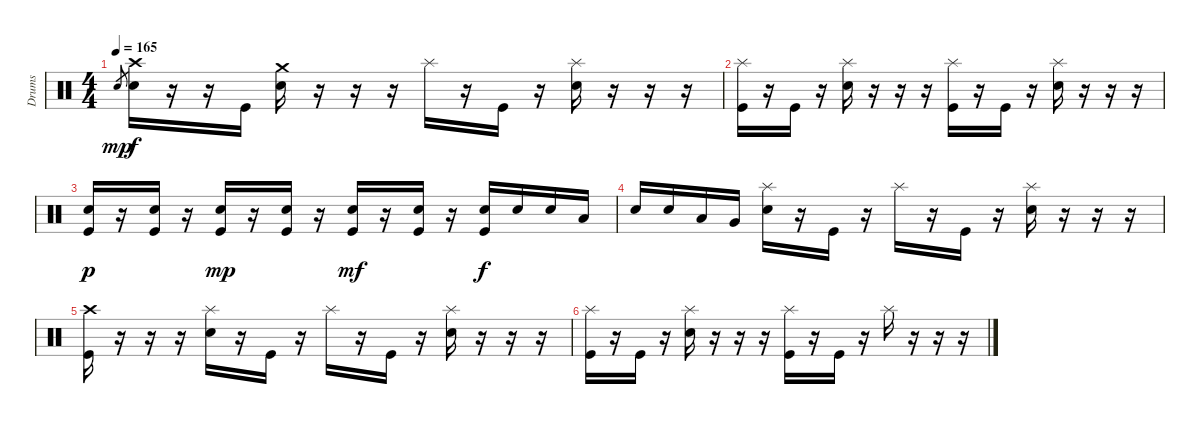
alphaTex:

\track ("Drums" "Drums") {instrument percussion}
\staff {score}
\articulation defaults
\ts (4 4)
\tempo 165
\clef neutral
\ks c "Electric Snare (hit)".8{gr dy mp}
("Crash high (hit)" "Electric Snare (hit)").16{dy f} r.16 r.16 "Kick (hit)".16 ("Crash medium (hit)" "Electric Snare (hit)").16 r.16 r.16 r.16 "Splash (hit)".16 r.16 "Kick (hit)".16 r.16 ("Splash (hit)" "Electric Snare (hit)").16 r.16 r.16 r.16 |
("Splash (hit)" "Kick (hit)").16 r.16 "Kick (hit)".16 r.16 ("Splash (hit)" "Electric Snare (hit)").16 r.16 r.16 r.16 ("Splash (hit)" "Kick (hit)").16 r.16 "Kick (hit)".16 r.16 ("Splash (hit)" "Electric Snare (hit)").16 r.16 r.16 r.16 |
("Electric Snare (hit)" "Kick (hit)").16{dy p} r.16 ("Electric Snare (hit)" "Kick (hit)").16 r.16 ("Electric Snare (hit)" "Kick (hit)").16{dy mp} r.16 ("Electric Snare (hit)" "Kick (hit)").16 r.16 ("Electric Snare (hit)" "Kick (hit)").16{dy mf} r.16 ("Electric Snare (hit)" "Kick (hit)").16 r.16 ("Electric Snare (hit)" "Kick (hit)").16{dy f} "Electric Snare (hit)".16 "Electric Snare (hit)".16 "Low Tom (hit)".16 |
"Electric Snare (hit)".16 "Electric Snare (hit)".16 "Low Tom (hit)".16 "Very Low Tom (hit)".16 ("Splash (hit)" "Electric Snare (hit)").16 r.16 "Kick (hit)".16 r.16 "Splash (hit)".16 r.16 "Kick (hit)".16 r.16 ("Splash (hit)" "Electric Snare (hit)").16 r.16 r.16 r.16 |
("Crash high (hit)" "Kick (hit)").16 r.16 r.16 r.16 ("Splash (hit)" "Electric Snare (hit)").16 r.16 "Kick (hit)".16 r.16 "Splash (hit)".16 r.16 "Kick (hit)".16 r.16 ("Splash (hit)" "Electric Snare (hit)").16 r.16 r.16 r.16 |
("Splash (hit)" "Kick (hit)").16 r.16 "Kick (hit)".16 r.16 ("Splash (hit)" "Electric Snare (hit)").16 r.16 r.16 r.16 ("Splash (hit)" "Kick (hit)").16 r.16 "Kick (hit)".16 r.16 "Splash (hit)".16 r.16 r.16 r.16
